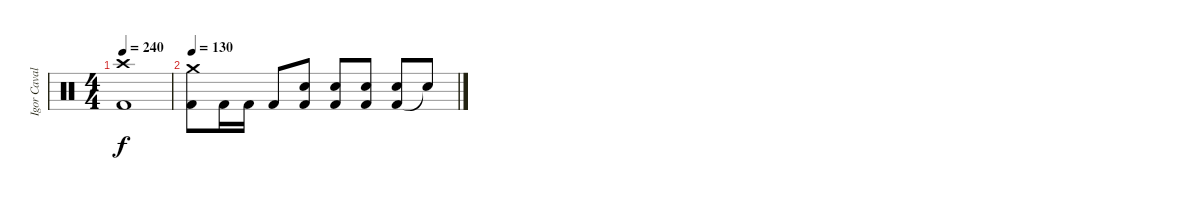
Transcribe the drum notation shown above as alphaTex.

\track ("Igor Cavalera" "Igor Caval") {instrument percussion}
\staff {score}
\articulation defaults
\ts (4 4)
\tempo 240
\clef neutral
\ks c
("Kick (hit) 2" "Crash high (hit)").1{dy f} |
\tempo 130
("Kick (hit) 2" "Crash medium (hit)").8 "Kick (hit) 2".16 "Kick (hit) 2".16 "Kick (hit) 2".8 ("Kick (hit) 2" "Snare (hit) 2").8 ("Kick (hit) 2" "Snare (hit) 2").8 ("Kick (hit) 2" "Snare (hit) 2").8 ("Kick (hit) 2" "Snare (hit) 2").8 "Snare (hit)"{t}.8
